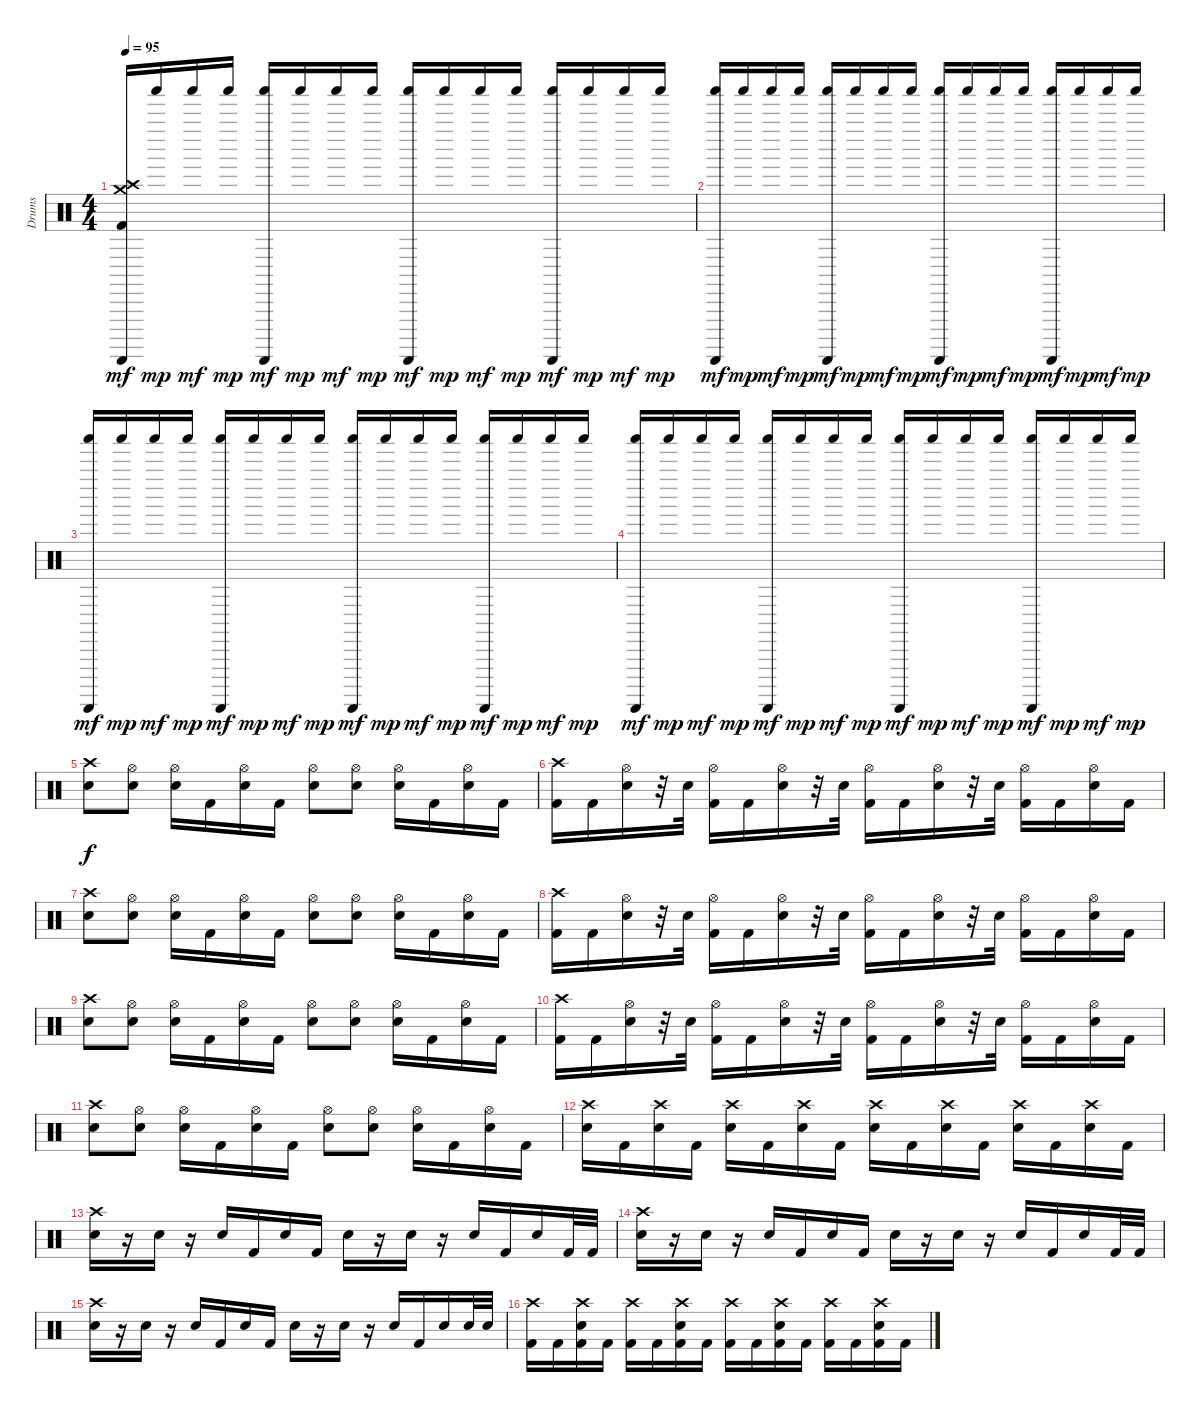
\track ("Drums" "Drums") {instrument percussion}
\staff {score}
\articulation defaults
\ts (4 4)
\tempo 95
\clef neutral
\ks c
("Guiro (scrap-return)" "Crash medium (hit)" "Kick (hit) 2" "Crash high (hit)").16{dy mf} "Shaker (hit)".16{dy mp} "Shaker (hit)".16{dy mf} "Shaker (hit)".16{dy mp} ("Guiro (scrap-return)" "Shaker (hit)").16{dy mf} "Shaker (hit)".16{dy mp} "Shaker (hit)".16{dy mf} "Shaker (hit)".16{dy mp} ("Guiro (scrap-return)" "Shaker (hit)").16{dy mf} "Shaker (hit)".16{dy mp} "Shaker (hit)".16{dy mf} "Shaker (hit)".16{dy mp} ("Guiro (scrap-return)" "Shaker (hit)").16{dy mf} "Shaker (hit)".16{dy mp} "Shaker (hit)".16{dy mf} "Shaker (hit)".16{dy mp} |
("Guiro (scrap-return)" "Shaker (hit)").16{dy mf} "Shaker (hit)".16{dy mp} "Shaker (hit)".16{dy mf} "Shaker (hit)".16{dy mp} ("Guiro (scrap-return)" "Shaker (hit)").16{dy mf} "Shaker (hit)".16{dy mp} "Shaker (hit)".16{dy mf} "Shaker (hit)".16{dy mp} ("Guiro (scrap-return)" "Shaker (hit)").16{dy mf} "Shaker (hit)".16{dy mp} "Shaker (hit)".16{dy mf} "Shaker (hit)".16{dy mp} ("Guiro (scrap-return)" "Shaker (hit)").16{dy mf} "Shaker (hit)".16{dy mp} "Shaker (hit)".16{dy mf} "Shaker (hit)".16{dy mp} |
("Guiro (scrap-return)" "Shaker (hit)").16{dy mf} "Shaker (hit)".16{dy mp} "Shaker (hit)".16{dy mf} "Shaker (hit)".16{dy mp} ("Guiro (scrap-return)" "Shaker (hit)").16{dy mf} "Shaker (hit)".16{dy mp} "Shaker (hit)".16{dy mf} "Shaker (hit)".16{dy mp} ("Guiro (scrap-return)" "Shaker (hit)").16{dy mf} "Shaker (hit)".16{dy mp} "Shaker (hit)".16{dy mf} "Shaker (hit)".16{dy mp} ("Guiro (scrap-return)" "Shaker (hit)").16{dy mf} "Shaker (hit)".16{dy mp} "Shaker (hit)".16{dy mf} "Shaker (hit)".16{dy mp} |
("Guiro (scrap-return)" "Shaker (hit)").16{dy mf} "Shaker (hit)".16{dy mp} "Shaker (hit)".16{dy mf} "Shaker (hit)".16{dy mp} ("Guiro (scrap-return)" "Shaker (hit)").16{dy mf} "Shaker (hit)".16{dy mp} "Shaker (hit)".16{dy mf} "Shaker (hit)".16{dy mp} ("Guiro (scrap-return)" "Shaker (hit)").16{dy mf} "Shaker (hit)".16{dy mp} "Shaker (hit)".16{dy mf} "Shaker (hit)".16{dy mp} ("Guiro (scrap-return)" "Shaker (hit)").16{dy mf} "Shaker (hit)".16{dy mp} "Shaker (hit)".16{dy mf} "Shaker (hit)".16{dy mp} |
("Crash high (hit)" "Snare (hit) 2").8{dy f} ("Hi-Hat (open)" "Snare (hit) 2").8 ("Hi-Hat (open)" "Snare (hit) 2").16 "Kick (hit) 2".16 ("Hi-Hat (open)" "Snare (hit) 2").16 "Kick (hit) 2".16 ("Hi-Hat (open)" "Snare (hit) 2").8 ("Hi-Hat (open)" "Snare (hit) 2").8 ("Hi-Hat (open)" "Snare (hit) 2").16 "Kick (hit) 2".16 ("Hi-Hat (open)" "Snare (hit) 2").16 "Kick (hit) 2".16 |
("Crash high (hit)" "Kick (hit) 2").16 "Kick (hit) 2".16 ("Hi-Hat (open)" "Snare (hit) 2").16 r.32 "Snare (hit) 2".32 ("Hi-Hat (open)" "Kick (hit) 2").16 "Kick (hit) 2".16 ("Hi-Hat (open)" "Snare (hit) 2").16 r.32 "Snare (hit) 2".32 ("Hi-Hat (open)" "Kick (hit) 2").16 "Kick (hit) 2".16 ("Hi-Hat (open)" "Snare (hit) 2").16 r.32 "Snare (hit) 2".32 ("Hi-Hat (open)" "Kick (hit) 2").16 "Kick (hit) 2".16 ("Hi-Hat (open)" "Snare (hit) 2").16 "Kick (hit) 2".16 |
("Crash high (hit)" "Snare (hit) 2").8 ("Hi-Hat (open)" "Snare (hit) 2").8 ("Hi-Hat (open)" "Snare (hit) 2").16 "Kick (hit) 2".16 ("Hi-Hat (open)" "Snare (hit) 2").16 "Kick (hit) 2".16 ("Hi-Hat (open)" "Snare (hit) 2").8 ("Hi-Hat (open)" "Snare (hit) 2").8 ("Hi-Hat (open)" "Snare (hit) 2").16 "Kick (hit) 2".16 ("Hi-Hat (open)" "Snare (hit) 2").16 "Kick (hit) 2".16 |
("Crash high (hit)" "Kick (hit) 2").16 "Kick (hit) 2".16 ("Hi-Hat (open)" "Snare (hit) 2").16 r.32 "Snare (hit) 2".32 ("Hi-Hat (open)" "Kick (hit) 2").16 "Kick (hit) 2".16 ("Hi-Hat (open)" "Snare (hit) 2").16 r.32 "Snare (hit) 2".32 ("Hi-Hat (open)" "Kick (hit) 2").16 "Kick (hit) 2".16 ("Hi-Hat (open)" "Snare (hit) 2").16 r.32 "Snare (hit) 2".32 ("Hi-Hat (open)" "Kick (hit) 2").16 "Kick (hit) 2".16 ("Hi-Hat (open)" "Snare (hit) 2").16 "Kick (hit) 2".16 |
("Crash high (hit)" "Snare (hit) 2").8 ("Hi-Hat (open)" "Snare (hit) 2").8 ("Hi-Hat (open)" "Snare (hit) 2").16 "Kick (hit) 2".16 ("Hi-Hat (open)" "Snare (hit) 2").16 "Kick (hit) 2".16 ("Hi-Hat (open)" "Snare (hit) 2").8 ("Hi-Hat (open)" "Snare (hit) 2").8 ("Hi-Hat (open)" "Snare (hit) 2").16 "Kick (hit) 2".16 ("Hi-Hat (open)" "Snare (hit) 2").16 "Kick (hit) 2".16 |
("Crash high (hit)" "Kick (hit) 2").16 "Kick (hit) 2".16 ("Hi-Hat (open)" "Snare (hit) 2").16 r.32 "Snare (hit) 2".32 ("Hi-Hat (open)" "Kick (hit) 2").16 "Kick (hit) 2".16 ("Hi-Hat (open)" "Snare (hit) 2").16 r.32 "Snare (hit) 2".32 ("Hi-Hat (open)" "Kick (hit) 2").16 "Kick (hit) 2".16 ("Hi-Hat (open)" "Snare (hit) 2").16 r.32 "Snare (hit) 2".32 ("Hi-Hat (open)" "Kick (hit) 2").16 "Kick (hit) 2".16 ("Hi-Hat (open)" "Snare (hit) 2").16 "Kick (hit) 2".16 |
("Crash high (hit)" "Snare (hit) 2").8 ("Hi-Hat (open)" "Snare (hit) 2").8 ("Hi-Hat (open)" "Snare (hit) 2").16 "Kick (hit) 2".16 ("Hi-Hat (open)" "Snare (hit) 2").16 "Kick (hit) 2".16 ("Hi-Hat (open)" "Snare (hit) 2").8 ("Hi-Hat (open)" "Snare (hit) 2").8 ("Hi-Hat (open)" "Snare (hit) 2").16 "Kick (hit) 2".16 ("Hi-Hat (open)" "Snare (hit) 2").16 "Kick (hit) 2".16 |
("Crash high (hit)" "Snare (hit) 2").16 "Kick (hit) 2".16 ("Crash high (hit)" "Snare (hit) 2").16 "Kick (hit) 2".16 ("Crash high (hit)" "Snare (hit) 2").16 "Kick (hit) 2".16 ("Crash high (hit)" "Snare (hit) 2").16 "Kick (hit) 2".16 ("Crash high (hit)" "Snare (hit) 2").16 "Kick (hit) 2".16 ("Crash high (hit)" "Snare (hit) 2").16 "Kick (hit) 2".16 ("Crash high (hit)" "Snare (hit) 2").16 "Kick (hit) 2".16 ("Crash high (hit)" "Snare (hit) 2").16 "Kick (hit) 2".16 |
("Crash high (hit)" "Snare (hit) 2").16 r.16 "Snare (hit) 2".16 r.16 "Snare (hit) 2".16 "Kick (hit) 2".16 "Snare (hit) 2".16 "Kick (hit) 2".16 "Snare (hit) 2".16 r.16 "Snare (hit) 2".16 r.16 "Snare (hit) 2".16 "Kick (hit) 2".16 "Snare (hit) 2".16 "Kick (hit) 2".32 "Kick (hit) 2".32 |
("Crash high (hit)" "Snare (hit) 2").16 r.16 "Snare (hit) 2".16 r.16 "Snare (hit) 2".16 "Kick (hit) 2".16 "Snare (hit) 2".16 "Kick (hit) 2".16 "Snare (hit) 2".16 r.16 "Snare (hit) 2".16 r.16 "Snare (hit) 2".16 "Kick (hit) 2".16 "Snare (hit) 2".16 "Kick (hit) 2".32 "Kick (hit) 2".32 |
("Crash high (hit)" "Snare (hit) 2").16 r.16 "Snare (hit) 2".16 r.16 "Snare (hit) 2".16 "Kick (hit) 2".16 "Snare (hit) 2".16 "Kick (hit) 2".16 "Snare (hit) 2".16 r.16 "Snare (hit) 2".16 r.16 "Snare (hit) 2".16 "Kick (hit) 2".16 "Snare (hit) 2".16 "Snare (hit) 2".32 "Snare (hit) 2".32 |
("Crash high (hit)" "Kick (hit) 2").16 "Kick (hit) 2".16 ("Crash high (hit)" "Kick (hit) 2" "Snare (hit) 2").16 "Kick (hit) 2".16 ("Crash high (hit)" "Kick (hit) 2").16 "Kick (hit) 2".16 ("Crash high (hit)" "Kick (hit) 2" "Snare (hit) 2").16 "Kick (hit) 2".16 ("Crash high (hit)" "Kick (hit) 2").16 "Kick (hit) 2".16 ("Crash high (hit)" "Kick (hit) 2" "Snare (hit) 2").16 "Kick (hit) 2".16 ("Crash high (hit)" "Kick (hit) 2").16 "Kick (hit) 2".16 ("Crash high (hit)" "Kick (hit) 2" "Snare (hit) 2").16 "Kick (hit) 2".16
